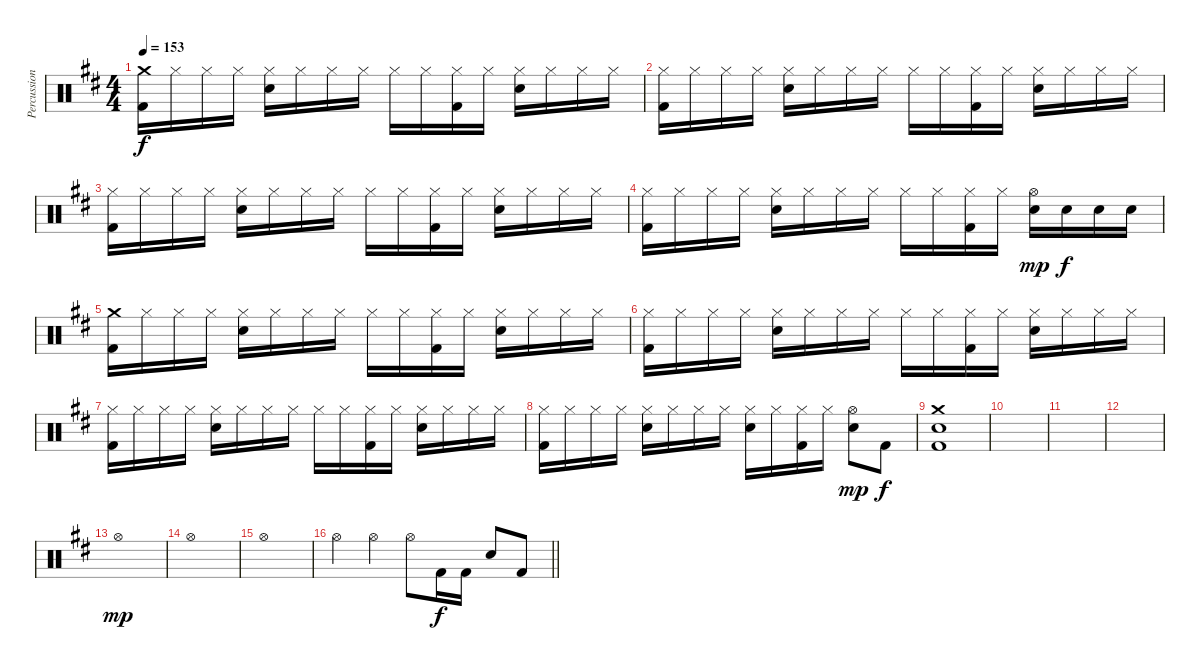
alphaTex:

\track ("Percussion" "Percussion") {instrument percussion}
\staff {score}
\articulation defaults
\ts (4 4)
\tempo 153
\clef neutral
\ks bminor
("Crash medium (hit)" "Kick (hit) 2").16{dy f} "Hi-Hat (closed)".16 "Hi-Hat (closed)".16 "Hi-Hat (closed)".16 ("Hi-Hat (closed)" "Electric Snare (hit)").16 "Hi-Hat (closed)".16 "Hi-Hat (closed)".16 "Hi-Hat (closed)".16 "Hi-Hat (closed)".16 "Hi-Hat (closed)".16 ("Hi-Hat (closed)" "Kick (hit) 2").16 "Hi-Hat (closed)".16 ("Hi-Hat (closed)" "Electric Snare (hit)").16 "Hi-Hat (closed)".16 "Hi-Hat (closed)".16 "Hi-Hat (closed)".16 |
("Hi-Hat (closed)" "Kick (hit) 2").16 "Hi-Hat (closed)".16 "Hi-Hat (closed)".16 "Hi-Hat (closed)".16 ("Hi-Hat (closed)" "Electric Snare (hit)").16 "Hi-Hat (closed)".16 "Hi-Hat (closed)".16 "Hi-Hat (closed)".16 "Hi-Hat (closed)".16 "Hi-Hat (closed)".16 ("Hi-Hat (closed)" "Kick (hit) 2").16 "Hi-Hat (closed)".16 ("Hi-Hat (closed)" "Electric Snare (hit)").16 "Hi-Hat (closed)".16 "Hi-Hat (closed)".16 "Hi-Hat (closed)".16 |
("Hi-Hat (closed)" "Kick (hit) 2").16 "Hi-Hat (closed)".16 "Hi-Hat (closed)".16 "Hi-Hat (closed)".16 ("Hi-Hat (closed)" "Electric Snare (hit)").16 "Hi-Hat (closed)".16 "Hi-Hat (closed)".16 "Hi-Hat (closed)".16 "Hi-Hat (closed)".16 "Hi-Hat (closed)".16 ("Hi-Hat (closed)" "Kick (hit) 2").16 "Hi-Hat (closed)".16 ("Hi-Hat (closed)" "Electric Snare (hit)").16 "Hi-Hat (closed)".16 "Hi-Hat (closed)".16 "Hi-Hat (closed)".16 |
("Hi-Hat (closed)" "Kick (hit) 2").16 "Hi-Hat (closed)".16 "Hi-Hat (closed)".16 "Hi-Hat (closed)".16 ("Hi-Hat (closed)" "Electric Snare (hit)").16 "Hi-Hat (closed)".16 "Hi-Hat (closed)".16 "Hi-Hat (closed)".16 "Hi-Hat (closed)".16 "Hi-Hat (closed)".16 ("Hi-Hat (closed)" "Kick (hit) 2").16 "Hi-Hat (closed)".16 ("Electric Snare (hit)" "Hi-Hat (open)").16{dy mp} "Electric Snare (hit)".16{dy f} "Electric Snare (hit)".16 "Electric Snare (hit)".16 |
("Crash medium (hit)" "Kick (hit) 2").16 "Hi-Hat (closed)".16 "Hi-Hat (closed)".16 "Hi-Hat (closed)".16 ("Hi-Hat (closed)" "Electric Snare (hit)").16 "Hi-Hat (closed)".16 "Hi-Hat (closed)".16 "Hi-Hat (closed)".16 "Hi-Hat (closed)".16 "Hi-Hat (closed)".16 ("Hi-Hat (closed)" "Kick (hit) 2").16 "Hi-Hat (closed)".16 ("Hi-Hat (closed)" "Electric Snare (hit)").16 "Hi-Hat (closed)".16 "Hi-Hat (closed)".16 "Hi-Hat (closed)".16 |
("Hi-Hat (closed)" "Kick (hit) 2").16 "Hi-Hat (closed)".16 "Hi-Hat (closed)".16 "Hi-Hat (closed)".16 ("Hi-Hat (closed)" "Electric Snare (hit)").16 "Hi-Hat (closed)".16 "Hi-Hat (closed)".16 "Hi-Hat (closed)".16 "Hi-Hat (closed)".16 "Hi-Hat (closed)".16 ("Hi-Hat (closed)" "Kick (hit) 2").16 "Hi-Hat (closed)".16 ("Hi-Hat (closed)" "Electric Snare (hit)").16 "Hi-Hat (closed)".16 "Hi-Hat (closed)".16 "Hi-Hat (closed)".16 |
("Hi-Hat (closed)" "Kick (hit) 2").16 "Hi-Hat (closed)".16 "Hi-Hat (closed)".16 "Hi-Hat (closed)".16 ("Hi-Hat (closed)" "Electric Snare (hit)").16 "Hi-Hat (closed)".16 "Hi-Hat (closed)".16 "Hi-Hat (closed)".16 "Hi-Hat (closed)".16 "Hi-Hat (closed)".16 ("Hi-Hat (closed)" "Kick (hit) 2").16 "Hi-Hat (closed)".16 ("Hi-Hat (closed)" "Electric Snare (hit)").16 "Hi-Hat (closed)".16 "Hi-Hat (closed)".16 "Hi-Hat (closed)".16 |
("Hi-Hat (closed)" "Kick (hit) 2").16 "Hi-Hat (closed)".16 "Hi-Hat (closed)".16 "Hi-Hat (closed)".16 ("Hi-Hat (closed)" "Electric Snare (hit)").16 "Hi-Hat (closed)".16 "Hi-Hat (closed)".16 "Hi-Hat (closed)".16 ("Hi-Hat (closed)" "Electric Snare (hit)").16 "Hi-Hat (closed)".16 ("Hi-Hat (closed)" "Kick (hit) 2").16 "Hi-Hat (closed)".16 ("Electric Snare (hit)" "Hi-Hat (open)").8{dy mp} "Kick (hit) 2".8{dy f} |
("Kick (hit) 2" "Electric Snare (hit)" "Crash medium (hit)").1 |
|
|
|
"Hi-Hat (open)".1{dy mp} |
"Hi-Hat (open)".1 |
"Hi-Hat (open)".1 |
\barLineRight lightlight "Hi-Hat (open)".4 "Hi-Hat (open)".4 "Hi-Hat (open)".8 "Kick (hit) 2".16{dy f} "Kick (hit) 2".16 "Electric Snare (hit)".8 "Kick (hit) 2".8
